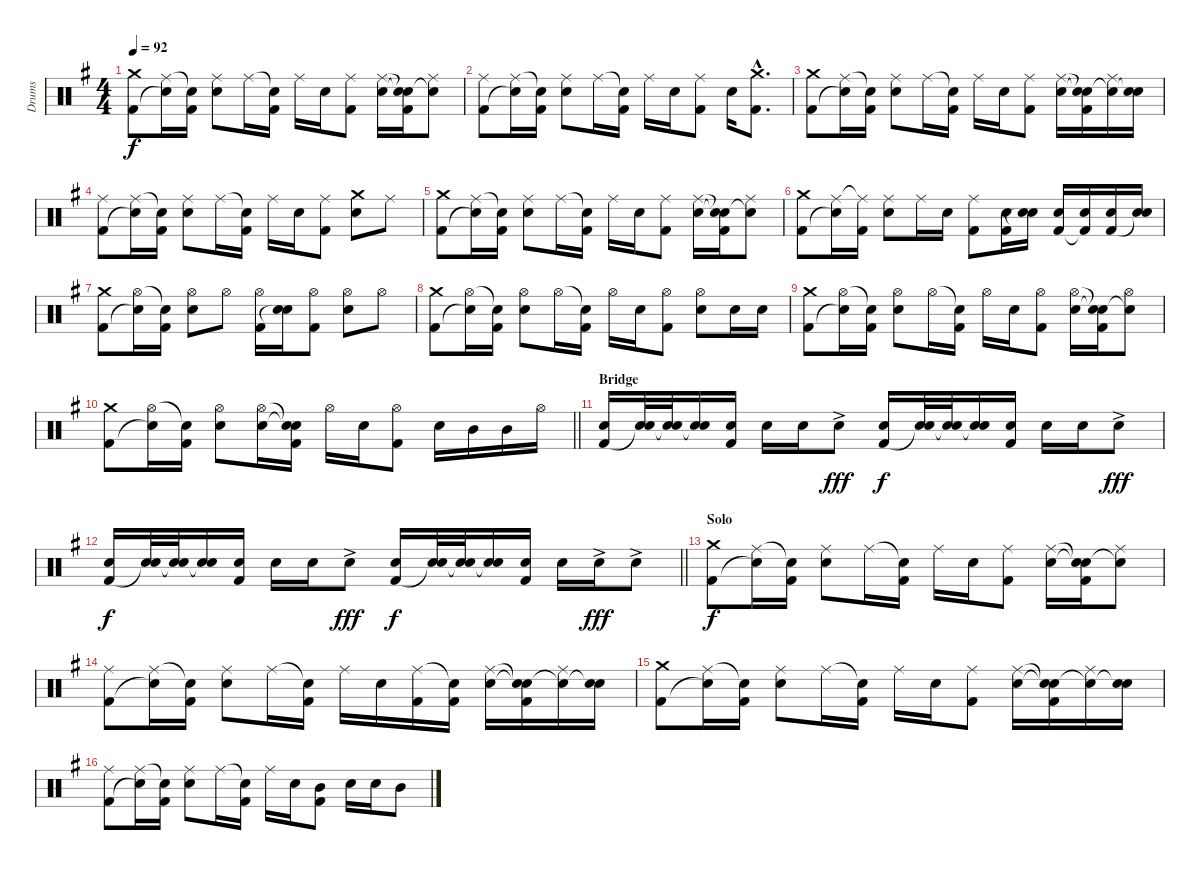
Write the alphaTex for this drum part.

\track ("Drums" "Drums") {instrument percussion}
\staff {score}
\articulation defaults
\ts (4 4)
\tempo 92
\clef neutral
\ks g
("Crash medium (hit)" "Kick (hit) 2").8{dy f} ("Ride (middle)" "Snare (hit)"{t}).16 ("Snare (hit)"{t} "Kick (hit) 2").16 ("Ride (middle)" "Electric Snare (hit)").8 "Ride (middle)".16 ("Snare (hit)"{t} "Kick (hit) 2").16 "Ride (middle)".16 "Electric Snare (hit)".16 ("Ride (middle)" "Kick (hit) 2").8 ("Ride (middle)" "Electric Snare (hit)").16 ("Snare (hit)"{t} "Snare (hit)"{t} "Kick (hit) 2").16 ("Ride (middle)" "Snare (hit)"{t}).8 |
("Ride (middle)" "Kick (hit) 2").8 ("Ride (middle)" "Snare (hit)"{t}).16 ("Snare (hit)"{t} "Kick (hit) 2").16 ("Ride (middle)" "Electric Snare (hit)").8 "Ride (middle)".16 ("Snare (hit)"{t} "Kick (hit) 2").16 "Ride (middle)".16 "Electric Snare (hit)".16 ("Ride (middle)" "Kick (hit) 2").8 "Electric Snare (hit)".16 ("Crash medium (hit)"{hac} "Kick (hit) 2"{hac}).8{d} |
("Crash medium (hit)" "Kick (hit) 2").8 ("Ride (middle)" "Snare (hit)"{t}).16 ("Snare (hit)"{t} "Kick (hit) 2").16 ("Ride (middle)" "Electric Snare (hit)").8 "Ride (middle)".16 ("Snare (hit)"{t} "Kick (hit) 2").16 "Ride (middle)".16 "Electric Snare (hit)".16 ("Ride (middle)" "Kick (hit) 2").8 ("Ride (middle)" "Electric Snare (hit)").16 ("Snare (hit)"{t} "Snare (hit)"{t} "Kick (hit) 2").16 ("Ride (middle)" "Snare (hit)"{t}).16 ("Electric Snare (hit)" "Snare (hit)"{t}).16 |
("Ride (middle)" "Kick (hit) 2").8 ("Ride (middle)" "Snare (hit)"{t}).16 ("Snare (hit)"{t} "Kick (hit) 2").16 ("Ride (middle)" "Electric Snare (hit)").8 "Ride (middle)".16 ("Snare (hit)"{t} "Kick (hit) 2").16 "Ride (middle)".16 "Electric Snare (hit)".16 ("Ride (middle)" "Kick (hit) 2").8 ("Crash medium (hit)" "Electric Snare (hit)").8 "Ride (middle)".8 |
("Crash medium (hit)" "Kick (hit) 2").8 ("Ride (middle)" "Snare (hit)"{t}).16 ("Snare (hit)"{t} "Kick (hit) 2").16 ("Ride (middle)" "Electric Snare (hit)").8 "Ride (middle)".16 ("Snare (hit)"{t} "Kick (hit) 2").16 "Ride (middle)".16 "Electric Snare (hit)".16 ("Ride (middle)" "Kick (hit) 2").8 ("Ride (middle)" "Electric Snare (hit)").16 ("Snare (hit)"{t} "Snare (hit)"{t} "Kick (hit) 2").16 ("Ride (middle)" "Snare (hit)"{t}).8 |
("Crash medium (hit)" "Kick (hit) 2").8 ("Ride (middle)" "Snare (hit)"{t}).16 ("Ride (middle)"{t} "Kick (hit) 2").16 ("Ride (middle)" "Electric Snare (hit)").8 "Ride (middle)".16 "Electric Snare (hit)".16 ("Ride (middle)" "Kick (hit) 2").8 ("Electric Snare (hit)" "Kick (hit) 2").16 ("Electric Snare (hit)" "Snare (hit)"{t}).16 ("Electric Snare (hit)" "Kick (hit) 2").16 ("Electric Snare (hit)" "Kick (hit) 2"{t}).16 ("Electric Snare (hit)" "Kick (hit) 2").16 ("Electric Snare (hit)" "Snare (hit)"{t}).16 |
("Crash medium (hit)" "Kick (hit) 2").8 ("Hi-Hat (open)" "Snare (hit)"{t}).16 ("Snare (hit)"{t} "Kick (hit) 2").16 ("Hi-Hat (open)" "Electric Snare (hit)").8 "Hi-Hat (open)".8 ("Hi-Hat (open)" "Kick (hit) 2").16 ("Electric Snare (hit)" "Snare (hit)"{t}).16 ("Hi-Hat (open)" "Kick (hit) 2").8 ("Hi-Hat (open)" "Electric Snare (hit)").8 "Hi-Hat (open)".8 |
("Crash medium (hit)" "Kick (hit) 2").8 ("Hi-Hat (open)" "Snare (hit)"{t}).16 ("Snare (hit)"{t} "Kick (hit) 2").16 ("Hi-Hat (open)" "Electric Snare (hit)").8 "Hi-Hat (open)".16 ("Snare (hit)"{t} "Kick (hit) 2").16 "Hi-Hat (open)".16 "Electric Snare (hit)".16 ("Hi-Hat (open)" "Kick (hit) 2").8 ("Hi-Hat (open)" "Electric Snare (hit)").8 "Electric Snare (hit)".16 "Electric Snare (hit)".16 |
("Crash medium (hit)" "Kick (hit) 2").8 ("Hi-Hat (open)" "Snare (hit)"{t}).16 ("Snare (hit)"{t} "Kick (hit) 2").16 ("Hi-Hat (open)" "Electric Snare (hit)").8 "Hi-Hat (open)".16 ("Snare (hit)"{t} "Kick (hit) 2").16 "Hi-Hat (open)".16 "Electric Snare (hit)".16 ("Hi-Hat (open)" "Kick (hit) 2").8 ("Hi-Hat (open)" "Electric Snare (hit)").16 ("Snare (hit)"{t} "Snare (hit)"{t} "Kick (hit) 2").16 ("Hi-Hat (open)" "Snare (hit)"{t}).8 |
\barLineRight lightlight
("Crash medium (hit)" "Kick (hit) 2").8 ("Hi-Hat (open)" "Snare (hit)"{t}).16 ("Snare (hit)"{t} "Kick (hit) 2").16 ("Hi-Hat (open)" "Electric Snare (hit)").8 ("Hi-Hat (open)" "Electric Snare (hit)").16 ("Snare (hit)"{t} "Snare (hit)"{t} "Kick (hit) 2").16 "Hi-Hat (open)".16 "Electric Snare (hit)".16 ("Hi-Hat (open)" "Kick (hit) 2").8 "Electric Snare (hit)".16 "Mid Tom (hit)".16 "Mid Tom (hit)".16 "Hi-Hat (open)".16 |
\section ("" "Bridge")
("Electric Snare (hit)" "Kick (hit) 2").16 ("Electric Snare (hit)" "Snare (hit)"{t}).32 ("Electric Snare (hit)" "Snare (hit)"{t}).32 ("Electric Snare (hit)" "Snare (hit)"{t}).16 ("Electric Snare (hit)" "Kick (hit) 2").16 "Electric Snare (hit)".16 "Electric Snare (hit)".16 "Electric Snare (hit)"{ac}.8{dy fff} ("Electric Snare (hit)" "Kick (hit) 2").16{dy f} ("Electric Snare (hit)" "Snare (hit)"{t}).32 ("Electric Snare (hit)" "Snare (hit)"{t}).32 ("Electric Snare (hit)" "Snare (hit)"{t}).16 ("Electric Snare (hit)" "Kick (hit) 2").16 "Electric Snare (hit)".16 "Electric Snare (hit)".16 "Electric Snare (hit)"{ac}.8{dy fff} |
\barLineRight lightlight
("Electric Snare (hit)" "Kick (hit) 2").16{dy f} ("Electric Snare (hit)" "Snare (hit)"{t}).32 ("Electric Snare (hit)" "Snare (hit)"{t}).32 ("Electric Snare (hit)" "Snare (hit)"{t}).16 ("Electric Snare (hit)" "Kick (hit) 2").16 "Electric Snare (hit)".16 "Electric Snare (hit)".16 "Electric Snare (hit)"{ac}.8{dy fff} ("Electric Snare (hit)" "Kick (hit) 2").16{dy f} ("Electric Snare (hit)" "Snare (hit)"{t}).32 ("Electric Snare (hit)" "Snare (hit)"{t}).32 ("Electric Snare (hit)" "Snare (hit)"{t}).16 ("Electric Snare (hit)" "Kick (hit) 2").16 "Electric Snare (hit)".16 "Electric Snare (hit)"{ac}.16{dy fff} "Electric Snare (hit)"{ac}.8 |
\section ("" "Solo")
("Crash medium (hit)" "Kick (hit) 2").8{dy f} ("Ride (middle)" "Snare (hit)"{t}).16 ("Snare (hit)"{t} "Kick (hit) 2").16 ("Ride (middle)" "Electric Snare (hit)").8 "Ride (middle)".16 ("Snare (hit)"{t} "Kick (hit) 2").16 "Ride (middle)".16 "Electric Snare (hit)".16 ("Ride (middle)" "Kick (hit) 2").8 ("Ride (middle)" "Electric Snare (hit)").16 ("Snare (hit)"{t} "Snare (hit)"{t} "Kick (hit) 2").16 ("Ride (middle)" "Snare (hit)"{t}).8 |
("Ride (middle)" "Kick (hit) 2").8 ("Ride (middle)" "Snare (hit)"{t}).16 ("Snare (hit)"{t} "Kick (hit) 2").16 ("Ride (middle)" "Electric Snare (hit)").8 "Ride (middle)".16 ("Snare (hit)"{t} "Kick (hit) 2").16 "Ride (middle)".16 "Electric Snare (hit)".16 ("Ride (middle)" "Kick (hit) 2").16 ("Snare (hit)"{t} "Kick (hit) 2").16 ("Ride (middle)" "Electric Snare (hit)").16 ("Snare (hit)"{t} "Snare (hit)"{t} "Kick (hit) 2").16 ("Ride (middle)" "Snare (hit)"{t}).16 ("Electric Snare (hit)" "Snare (hit)"{t}).16 |
("Crash medium (hit)" "Kick (hit) 2").8 ("Ride (middle)" "Snare (hit)"{t}).16 ("Snare (hit)"{t} "Kick (hit) 2").16 ("Ride (middle)" "Electric Snare (hit)").8 "Ride (middle)".16 ("Snare (hit)"{t} "Kick (hit) 2").16 "Ride (middle)".16 "Electric Snare (hit)".16 ("Ride (middle)" "Kick (hit) 2").8 ("Ride (middle)" "Electric Snare (hit)").16 ("Snare (hit)"{t} "Snare (hit)"{t} "Kick (hit) 2").16 ("Ride (middle)" "Snare (hit)"{t}).16 ("Electric Snare (hit)" "Snare (hit)"{t}).16 |
("Ride (middle)" "Kick (hit) 2").8 ("Ride (middle)" "Snare (hit)"{t}).16 ("Snare (hit)"{t} "Kick (hit) 2").16 ("Ride (middle)" "Electric Snare (hit)").8 "Ride (middle)".16 ("Snare (hit)"{t} "Kick (hit) 2").16 "Ride (middle)".16 "Electric Snare (hit)".16 ("Mid Tom (hit)" "Kick (hit) 2").8 "Electric Snare (hit)".16 "Electric Snare (hit)".16 "Mid Tom (hit)".8
